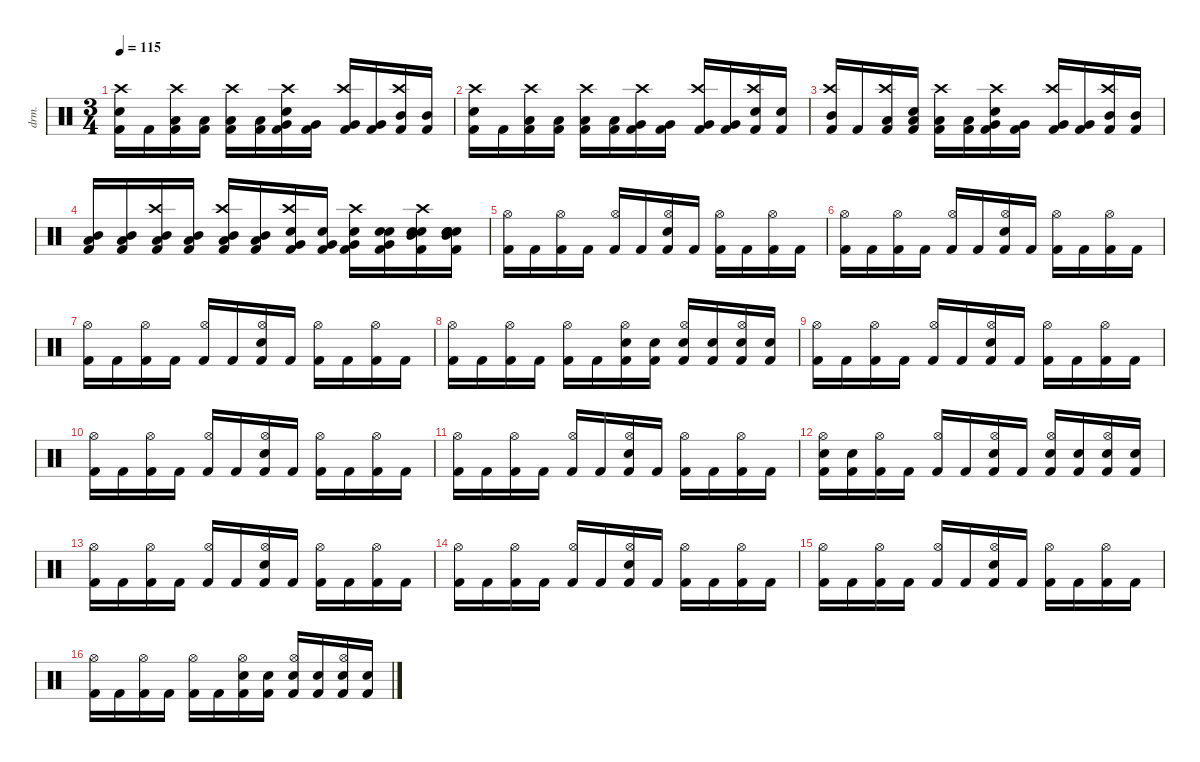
\defaultSystemsLayout 4
\hideDynamics
\bracketExtendMode nobrackets
\otherSystemsTrackNameOrientation horizontal
\track ("Gene Hogland" "drm.") {instrument percussion}
\staff {score}
\articulation defaults
\ts (3 4)
\tempo 115
\clef neutral
\ks c
("Crash high (hit)" "Snare (hit) 2" "Kick (hit) 2").16{dy f beam Down} "Kick (hit) 2".16{beam Down} ("Crash high (hit)" "Low Tom (hit)" "Kick (hit) 2").16{beam Down} ("Low Tom (hit)" "Kick (hit) 2").16{beam Down} ("Crash high (hit)" "Low Tom (hit)" "Kick (hit) 2").16{beam Down} ("Low Tom (hit)" "Kick (hit) 2").16{beam Down} ("Crash high (hit)" "Snare (hit) 2" "Very Low Tom (hit)" "Kick (hit) 2").16{beam Down} ("Very Low Tom (hit)" "Kick (hit) 2").16{beam Down} ("Crash high (hit)" "Very Low Tom (hit)" "Kick (hit) 2").16{beam Up} ("Very Low Tom (hit)" "Kick (hit) 2").16{beam Up} ("Crash high (hit)" "Mid Tom (hit)" "Kick (hit) 2").16{beam Up} ("Mid Tom (hit)" "Kick (hit) 2").16{beam Up} |
("Crash high (hit)" "Snare (hit) 2" "Kick (hit) 2").16{beam Down} "Kick (hit) 2".16{beam Down} ("Crash high (hit)" "Low Tom (hit)" "Kick (hit) 2").16{beam Down} ("Low Tom (hit)" "Kick (hit) 2").16{beam Down} ("Crash high (hit)" "Low Tom (hit)" "Kick (hit) 2").16{beam Down} ("Low Tom (hit)" "Kick (hit) 2").16{beam Down} ("Crash high (hit)" "Very Low Tom (hit)" "Kick (hit) 2").16{beam Down} ("Very Low Tom (hit)" "Kick (hit) 2").16{beam Down} ("Crash high (hit)" "Very Low Tom (hit)" "Kick (hit) 2").16{beam Up} ("Very Low Tom (hit)" "Kick (hit) 2").16{beam Up} ("Crash high (hit)" "Snare (hit) 2" "Kick (hit) 2").16{beam Up} ("Snare (hit) 2" "Kick (hit) 2").16{beam Up} |
("Crash high (hit)" "Mid Tom (hit)" "Kick (hit) 2").16{beam Up} "Kick (hit) 2".16{beam Up} ("Crash high (hit)" "Low Tom (hit)" "Kick (hit) 2").16{beam Up} ("Snare (hit) 2" "Low Tom (hit)" "Kick (hit) 2").16{beam Up} ("Crash high (hit)" "Low Tom (hit)" "Kick (hit) 2").16{beam Down} ("Low Tom (hit)" "Kick (hit) 2").16{beam Down} ("Crash high (hit)" "Snare (hit) 2" "Very Low Tom (hit)" "Kick (hit) 2").16{beam Down} ("Very Low Tom (hit)" "Kick (hit) 2").16{beam Down} ("Crash high (hit)" "Very Low Tom (hit)" "Kick (hit) 2").16{beam Up} ("Very Low Tom (hit)" "Kick (hit) 2").16{beam Up} ("Crash high (hit)" "Mid Tom (hit)" "Kick (hit) 2").16{beam Up} ("Mid Tom (hit)" "Kick (hit) 2").16{beam Up} |
("Mid Tom (hit)" "Low Tom (hit)" "Kick (hit) 2").16{beam Up} ("Mid Tom (hit)" "Low Tom (hit)" "Kick (hit) 2").16{beam Up} ("Crash high (hit)" "Mid Tom (hit)" "Low Tom (hit)" "Kick (hit) 2").16{beam Up} ("Mid Tom (hit)" "Low Tom (hit)" "Kick (hit) 2").16{beam Up} ("Crash high (hit)" "Mid Tom (hit)" "Low Tom (hit)" "Kick (hit) 2").16{beam Up} ("Mid Tom (hit)" "Low Tom (hit)" "Kick (hit) 2").16{beam Up} ("Crash high (hit)" "Snare (hit) 2" "Very Low Tom (hit)" "Kick (hit) 2").16{beam Up} ("Snare (hit) 2" "Very Low Tom (hit)" "Kick (hit) 2").16{beam Up} ("Crash high (hit)" "Snare (hit) 2" "Very Low Tom (hit)" "Kick (hit) 2").16{beam Down} ("Snare (hit) 2" "Snare (hit) 2" "Very Low Tom (hit)" "Kick (hit) 2").16{beam Down} ("Crash high (hit)" "Snare (hit) 2" "Snare (hit) 2" "Mid Tom (hit)" "Kick (hit) 2").16{beam Down} ("Snare (hit) 2" "Snare (hit) 2" "Snare (hit) 2" "Mid Tom (hit)" "Kick (hit) 2").16{beam Down} |
("Hi-Hat (open)" "Kick (hit) 2").16{beam Down} "Kick (hit) 2".16{beam Down} ("Hi-Hat (open)" "Kick (hit) 2").16{beam Down} "Kick (hit) 2".16{beam Down} ("Hi-Hat (open)" "Kick (hit) 2").16{beam Up} "Kick (hit) 2".16{beam Up} ("Hi-Hat (open)" "Snare (hit) 2" "Kick (hit) 2").16{beam Up} "Kick (hit) 2".16{beam Up} ("Hi-Hat (open)" "Kick (hit) 2").16{beam Down} "Kick (hit) 2".16{beam Down} ("Hi-Hat (open)" "Kick (hit) 2").16{beam Down} "Kick (hit) 2".16{beam Down} |
("Hi-Hat (open)" "Kick (hit) 2").16{beam Down} "Kick (hit) 2".16{beam Down} ("Hi-Hat (open)" "Kick (hit) 2").16{beam Down} "Kick (hit) 2".16{beam Down} ("Hi-Hat (open)" "Kick (hit) 2").16{beam Up} "Kick (hit) 2".16{beam Up} ("Hi-Hat (open)" "Snare (hit) 2" "Kick (hit) 2").16{beam Up} "Kick (hit) 2".16{beam Up} ("Hi-Hat (open)" "Kick (hit) 2").16{beam Down} "Kick (hit) 2".16{beam Down} ("Hi-Hat (open)" "Kick (hit) 2").16{beam Down} "Kick (hit) 2".16{beam Down} |
("Hi-Hat (open)" "Kick (hit) 2").16{beam Down} "Kick (hit) 2".16{beam Down} ("Hi-Hat (open)" "Kick (hit) 2").16{beam Down} "Kick (hit) 2".16{beam Down} ("Hi-Hat (open)" "Kick (hit) 2").16{beam Up} "Kick (hit) 2".16{beam Up} ("Hi-Hat (open)" "Snare (hit) 2" "Kick (hit) 2").16{beam Up} "Kick (hit) 2".16{beam Up} ("Hi-Hat (open)" "Kick (hit) 2").16{beam Down} "Kick (hit) 2".16{beam Down} ("Hi-Hat (open)" "Kick (hit) 2").16{beam Down} "Kick (hit) 2".16{beam Down} |
("Hi-Hat (open)" "Kick (hit) 2").16{beam Down} "Kick (hit) 2".16{beam Down} ("Hi-Hat (open)" "Kick (hit) 2").16{beam Down} "Kick (hit) 2".16{beam Down} ("Hi-Hat (open)" "Kick (hit) 2").16{beam Down} "Kick (hit) 2".16{beam Down} ("Hi-Hat (open)" "Snare (hit) 2" "Kick (hit) 2").16{beam Down} ("Snare (hit) 2" "Kick (hit) 2").16{beam Down} ("Hi-Hat (open)" "Snare (hit) 2" "Kick (hit) 2").16{beam Up} ("Snare (hit) 2" "Kick (hit) 2").16{beam Up} ("Hi-Hat (open)" "Snare (hit) 2" "Kick (hit) 2").16{beam Up} ("Snare (hit) 2" "Kick (hit) 2").16{beam Up} |
("Hi-Hat (open)" "Kick (hit) 2").16{beam Down} "Kick (hit) 2".16{beam Down} ("Hi-Hat (open)" "Kick (hit) 2").16{beam Down} "Kick (hit) 2".16{beam Down} ("Hi-Hat (open)" "Kick (hit) 2").16{beam Up} "Kick (hit) 2".16{beam Up} ("Hi-Hat (open)" "Snare (hit) 2" "Kick (hit) 2").16{beam Up} "Kick (hit) 2".16{beam Up} ("Hi-Hat (open)" "Kick (hit) 2").16{beam Down} "Kick (hit) 2".16{beam Down} ("Hi-Hat (open)" "Kick (hit) 2").16{beam Down} "Kick (hit) 2".16{beam Down} |
("Hi-Hat (open)" "Kick (hit) 2").16{beam Down} "Kick (hit) 2".16{beam Down} ("Hi-Hat (open)" "Kick (hit) 2").16{beam Down} "Kick (hit) 2".16{beam Down} ("Hi-Hat (open)" "Kick (hit) 2").16{beam Up} "Kick (hit) 2".16{beam Up} ("Hi-Hat (open)" "Snare (hit) 2" "Kick (hit) 2").16{beam Up} "Kick (hit) 2".16{beam Up} ("Hi-Hat (open)" "Kick (hit) 2").16{beam Down} "Kick (hit) 2".16{beam Down} ("Hi-Hat (open)" "Kick (hit) 2").16{beam Down} "Kick (hit) 2".16{beam Down} |
("Hi-Hat (open)" "Kick (hit) 2").16{beam Down} "Kick (hit) 2".16{beam Down} ("Hi-Hat (open)" "Kick (hit) 2").16{beam Down} "Kick (hit) 2".16{beam Down} ("Hi-Hat (open)" "Kick (hit) 2").16{beam Up} "Kick (hit) 2".16{beam Up} ("Hi-Hat (open)" "Snare (hit) 2" "Kick (hit) 2").16{beam Up} "Kick (hit) 2".16{beam Up} ("Hi-Hat (open)" "Kick (hit) 2").16{beam Down} "Kick (hit) 2".16{beam Down} ("Hi-Hat (open)" "Kick (hit) 2").16{beam Down} "Kick (hit) 2".16{beam Down} |
("Hi-Hat (open)" "Snare (hit) 2" "Kick (hit) 2").16{beam Down} ("Snare (hit) 2" "Kick (hit) 2").16{beam Down} ("Hi-Hat (open)" "Kick (hit) 2").16{beam Down} "Kick (hit) 2".16{beam Down} ("Hi-Hat (open)" "Kick (hit) 2").16{beam Up} "Kick (hit) 2".16{beam Up} ("Hi-Hat (open)" "Snare (hit) 2" "Kick (hit) 2").16{beam Up} "Kick (hit) 2".16{beam Up} ("Hi-Hat (open)" "Snare (hit) 2" "Kick (hit) 2").16{beam Up} ("Snare (hit) 2" "Kick (hit) 2").16{beam Up} ("Hi-Hat (open)" "Snare (hit) 2" "Kick (hit) 2").16{beam Up} ("Snare (hit) 2" "Kick (hit) 2").16{beam Up} |
("Hi-Hat (open)" "Kick (hit) 2").16{beam Down} "Kick (hit) 2".16{beam Down} ("Hi-Hat (open)" "Kick (hit) 2").16{beam Down} "Kick (hit) 2".16{beam Down} ("Hi-Hat (open)" "Kick (hit) 2").16{beam Up} "Kick (hit) 2".16{beam Up} ("Hi-Hat (open)" "Snare (hit) 2" "Kick (hit) 2").16{beam Up} "Kick (hit) 2".16{beam Up} ("Hi-Hat (open)" "Kick (hit) 2").16{beam Down} "Kick (hit) 2".16{beam Down} ("Hi-Hat (open)" "Kick (hit) 2").16{beam Down} "Kick (hit) 2".16{beam Down} |
("Hi-Hat (open)" "Kick (hit) 2").16{beam Down} "Kick (hit) 2".16{beam Down} ("Hi-Hat (open)" "Kick (hit) 2").16{beam Down} "Kick (hit) 2".16{beam Down} ("Hi-Hat (open)" "Kick (hit) 2").16{beam Up} "Kick (hit) 2".16{beam Up} ("Hi-Hat (open)" "Snare (hit) 2" "Kick (hit) 2").16{beam Up} "Kick (hit) 2".16{beam Up} ("Hi-Hat (open)" "Kick (hit) 2").16{beam Down} "Kick (hit) 2".16{beam Down} ("Hi-Hat (open)" "Kick (hit) 2").16{beam Down} "Kick (hit) 2".16{beam Down} |
("Hi-Hat (open)" "Kick (hit) 2").16{beam Down} "Kick (hit) 2".16{beam Down} ("Hi-Hat (open)" "Kick (hit) 2").16{beam Down} "Kick (hit) 2".16{beam Down} ("Hi-Hat (open)" "Kick (hit) 2").16{beam Up} "Kick (hit) 2".16{beam Up} ("Hi-Hat (open)" "Snare (hit) 2" "Kick (hit) 2").16{beam Up} "Kick (hit) 2".16{beam Up} ("Hi-Hat (open)" "Kick (hit) 2").16{beam Down} "Kick (hit) 2".16{beam Down} ("Hi-Hat (open)" "Kick (hit) 2").16{beam Down} "Kick (hit) 2".16{beam Down} |
("Hi-Hat (open)" "Kick (hit) 2").16{beam Down} "Kick (hit) 2".16{beam Down} ("Hi-Hat (open)" "Kick (hit) 2").16{beam Down} "Kick (hit) 2".16{beam Down} ("Hi-Hat (open)" "Kick (hit) 2").16{beam Down} "Kick (hit) 2".16{beam Down} ("Hi-Hat (open)" "Snare (hit) 2" "Kick (hit) 2").16{beam Down} ("Snare (hit) 2" "Kick (hit) 2").16{beam Down} ("Hi-Hat (open)" "Snare (hit) 2" "Kick (hit) 2").16{beam Up} ("Snare (hit) 2" "Kick (hit) 2").16{beam Up} ("Hi-Hat (open)" "Snare (hit) 2" "Kick (hit) 2").16{beam Up} ("Snare (hit) 2" "Kick (hit) 2").16{beam Up}
